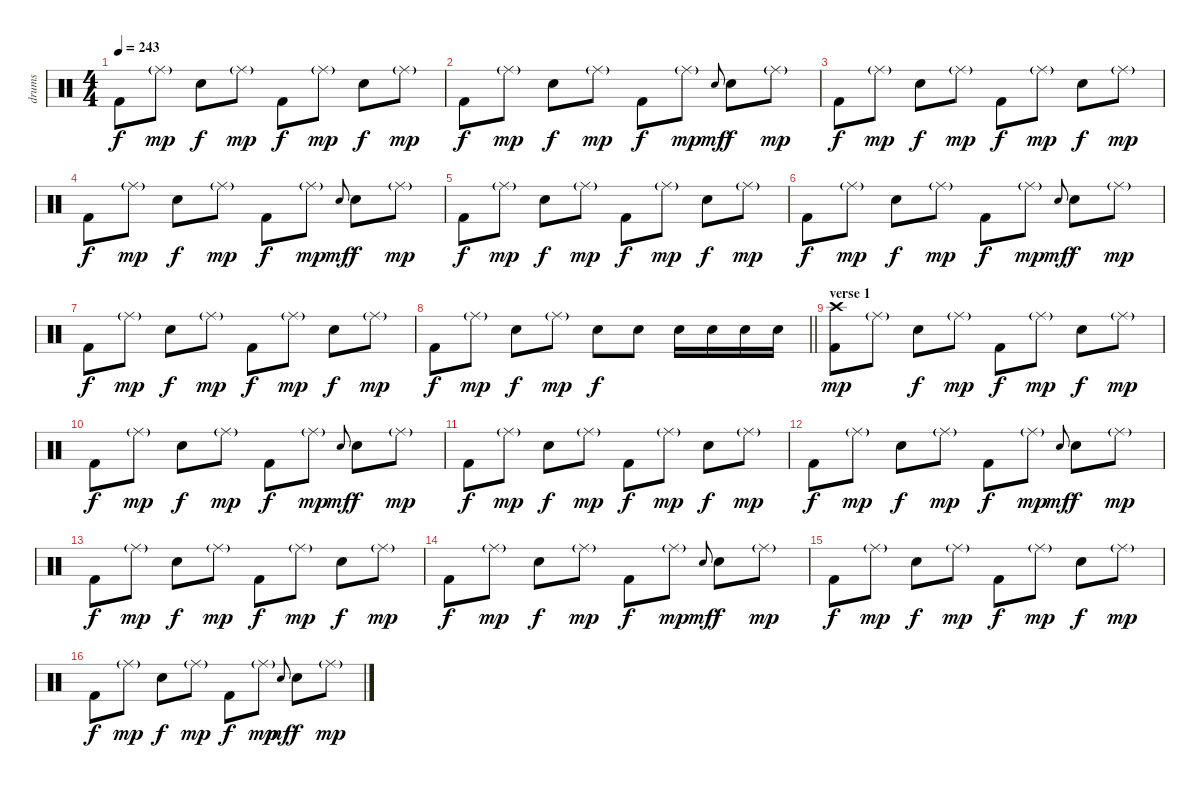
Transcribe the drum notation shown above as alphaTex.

\track ("drums" "drums") {instrument percussion}
\staff {score}
\articulation defaults
\ts (4 4)
\tempo 243
\clef neutral
\ks c "Kick (hit) 2".8{dy f} "Ride (middle)"{g}.8{dy mp} "Electric Snare (hit)".8{dy f} "Ride (middle)"{g}.8{dy mp} "Kick (hit) 2".8{dy f} "Ride (middle)"{g}.8{dy mp} "Electric Snare (hit)".8{dy f} "Ride (middle)"{g}.8{dy mp}
|
"Kick (hit) 2".8{dy f} "Ride (middle)"{g}.8{dy mp} "Electric Snare (hit)".8{dy f} "Ride (middle)"{g}.8{dy mp} "Kick (hit) 2".8{dy f} "Ride (middle)"{g}.8{dy mp} "Electric Snare (hit)"{x}.8{gr onbeat dy mf} "Electric Snare (hit)".8{dy f} "Ride (middle)"{g}.8{dy mp} |
"Kick (hit) 2".8{dy f} "Ride (middle)"{g}.8{dy mp} "Electric Snare (hit)".8{dy f} "Ride (middle)"{g}.8{dy mp} "Kick (hit) 2".8{dy f} "Ride (middle)"{g}.8{dy mp} "Electric Snare (hit)".8{dy f} "Ride (middle)"{g}.8{dy mp} |
"Kick (hit) 2".8{dy f} "Ride (middle)"{g}.8{dy mp} "Electric Snare (hit)".8{dy f} "Ride (middle)"{g}.8{dy mp} "Kick (hit) 2".8{dy f} "Ride (middle)"{g}.8{dy mp} "Electric Snare (hit)"{x}.8{gr onbeat dy mf} "Electric Snare (hit)".8{dy f} "Ride (middle)"{g}.8{dy mp} |
"Kick (hit) 2".8{dy f} "Ride (middle)"{g}.8{dy mp} "Electric Snare (hit)".8{dy f} "Ride (middle)"{g}.8{dy mp} "Kick (hit) 2".8{dy f} "Ride (middle)"{g}.8{dy mp} "Electric Snare (hit)".8{dy f} "Ride (middle)"{g}.8{dy mp} |
"Kick (hit) 2".8{dy f} "Ride (middle)"{g}.8{dy mp} "Electric Snare (hit)".8{dy f} "Ride (middle)"{g}.8{dy mp} "Kick (hit) 2".8{dy f} "Ride (middle)"{g}.8{dy mp} "Electric Snare (hit)"{x}.8{gr onbeat dy mf} "Electric Snare (hit)".8{dy f} "Ride (middle)"{g}.8{dy mp} |
"Kick (hit) 2".8{dy f} "Ride (middle)"{g}.8{dy mp} "Electric Snare (hit)".8{dy f} "Ride (middle)"{g}.8{dy mp} "Kick (hit) 2".8{dy f} "Ride (middle)"{g}.8{dy mp} "Electric Snare (hit)".8{dy f} "Ride (middle)"{g}.8{dy mp} |
\barLineRight lightlight "Kick (hit) 2".8{dy f} "Ride (middle)"{g}.8{dy mp} "Electric Snare (hit)".8{dy f} "Ride (middle)"{g}.8{dy mp} "Electric Snare (hit)".8{dy f} "Electric Snare (hit)".8 "Electric Snare (hit)".16 "Electric Snare (hit)".16 "Electric Snare (hit)".16 "Electric Snare (hit)".16
|
\section ("" "verse 1")
("Kick (hit) 2" "Crash high (hit)").8{dy mp} "Ride (middle)"{g}.8 "Electric Snare (hit)".8{dy f} "Ride (middle)"{g}.8{dy mp} "Kick (hit) 2".8{dy f} "Ride (middle)"{g}.8{dy mp} "Electric Snare (hit)".8{dy f} "Ride (middle)"{g}.8{dy mp} |
"Kick (hit) 2".8{dy f} "Ride (middle)"{g}.8{dy mp} "Electric Snare (hit)".8{dy f} "Ride (middle)"{g}.8{dy mp} "Kick (hit) 2".8{dy f} "Ride (middle)"{g}.8{dy mp} "Electric Snare (hit)"{x}.8{gr onbeat dy mf} "Electric Snare (hit)".8{dy f} "Ride (middle)"{g}.8{dy mp} |
"Kick (hit) 2".8{dy f} "Ride (middle)"{g}.8{dy mp} "Electric Snare (hit)".8{dy f} "Ride (middle)"{g}.8{dy mp} "Kick (hit) 2".8{dy f} "Ride (middle)"{g}.8{dy mp} "Electric Snare (hit)".8{dy f} "Ride (middle)"{g}.8{dy mp} |
"Kick (hit) 2".8{dy f} "Ride (middle)"{g}.8{dy mp} "Electric Snare (hit)".8{dy f} "Ride (middle)"{g}.8{dy mp} "Kick (hit) 2".8{dy f} "Ride (middle)"{g}.8{dy mp} "Electric Snare (hit)"{x}.8{gr onbeat dy mf} "Electric Snare (hit)".8{dy f} "Ride (middle)"{g}.8{dy mp} |
"Kick (hit) 2".8{dy f} "Ride (middle)"{g}.8{dy mp} "Electric Snare (hit)".8{dy f} "Ride (middle)"{g}.8{dy mp} "Kick (hit) 2".8{dy f} "Ride (middle)"{g}.8{dy mp} "Electric Snare (hit)".8{dy f} "Ride (middle)"{g}.8{dy mp} |
"Kick (hit) 2".8{dy f} "Ride (middle)"{g}.8{dy mp} "Electric Snare (hit)".8{dy f} "Ride (middle)"{g}.8{dy mp} "Kick (hit) 2".8{dy f} "Ride (middle)"{g}.8{dy mp} "Electric Snare (hit)"{x}.8{gr onbeat dy mf} "Electric Snare (hit)".8{dy f} "Ride (middle)"{g}.8{dy mp} |
"Kick (hit) 2".8{dy f} "Ride (middle)"{g}.8{dy mp} "Electric Snare (hit)".8{dy f} "Ride (middle)"{g}.8{dy mp} "Kick (hit) 2".8{dy f} "Ride (middle)"{g}.8{dy mp} "Electric Snare (hit)".8{dy f} "Ride (middle)"{g}.8{dy mp} |
"Kick (hit) 2".8{dy f} "Ride (middle)"{g}.8{dy mp} "Electric Snare (hit)".8{dy f} "Ride (middle)"{g}.8{dy mp} "Kick (hit) 2".8{dy f} "Ride (middle)"{g}.8{dy mp} "Electric Snare (hit)"{x}.8{gr onbeat dy mf} "Electric Snare (hit)".8{dy f} "Ride (middle)"{g}.8{dy mp}
